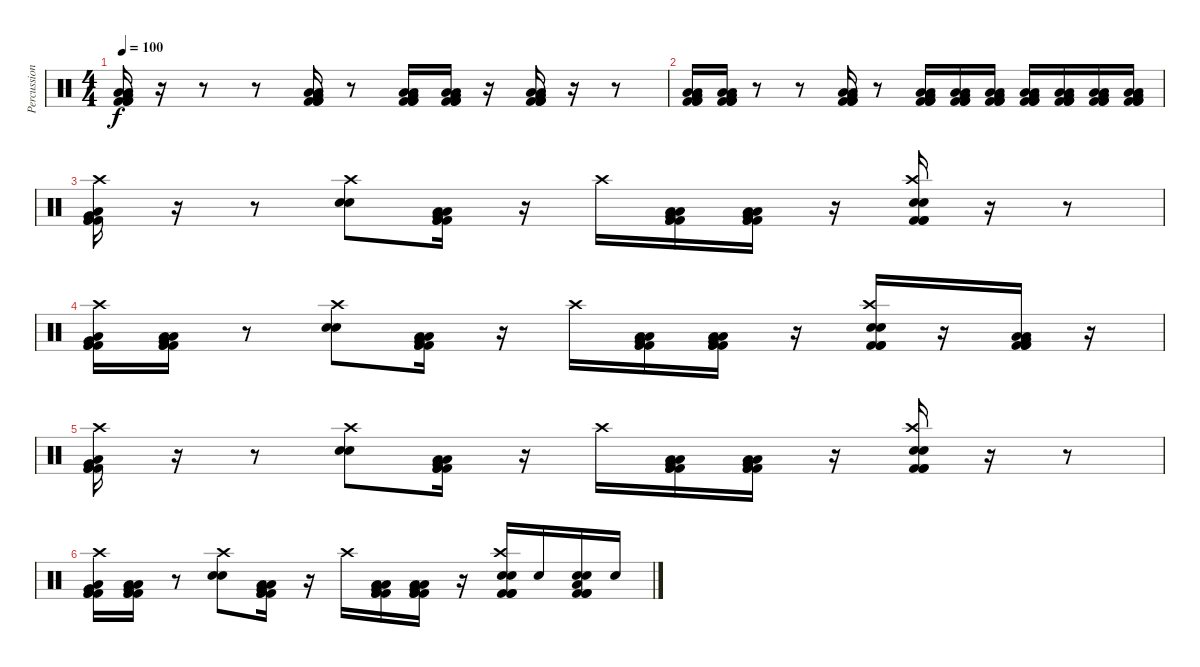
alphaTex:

\track ("Percussion" "Percussion") {instrument percussion}
\staff {score}
\articulation defaults
\ts (4 4)
\tempo 100
\clef neutral
\ks c
("Low Tom (hit)" "Very Low Tom (hit)" "Low Floor Tom (hit)" "Kick (hit) 2" "Kick (hit) 2" "Kick (hit) 2").16{dy f} r.16 r.8 r.8 ("Low Tom (hit)" "Very Low Tom (hit)" "Low Floor Tom (hit)" "Kick (hit) 2" "Kick (hit) 2" "Kick (hit) 2").16 r.8 ("Low Tom (hit)" "Very Low Tom (hit)" "Low Floor Tom (hit)" "Kick (hit) 2" "Kick (hit) 2" "Kick (hit) 2").16 ("Low Tom (hit)" "Very Low Tom (hit)" "Low Floor Tom (hit)" "Kick (hit) 2" "Kick (hit) 2" "Kick (hit) 2").16 r.16 ("Low Tom (hit)" "Very Low Tom (hit)" "Low Floor Tom (hit)" "Kick (hit) 2" "Kick (hit) 2" "Kick (hit) 2").16 r.16 r.8 |
("Low Tom (hit)" "Very Low Tom (hit)" "Low Floor Tom (hit)" "Kick (hit) 2" "Kick (hit) 2" "Kick (hit) 2").16 ("Low Tom (hit)" "Very Low Tom (hit)" "Low Floor Tom (hit)" "Kick (hit) 2" "Kick (hit) 2" "Kick (hit) 2").16 r.8 r.8 ("Low Tom (hit)" "Very Low Tom (hit)" "Low Floor Tom (hit)" "Kick (hit) 2" "Kick (hit) 2" "Kick (hit) 2").16 r.8 ("Low Tom (hit)" "Very Low Tom (hit)" "Low Floor Tom (hit)" "Kick (hit) 2" "Kick (hit) 2" "Kick (hit) 2").16 ("Low Tom (hit)" "Very Low Tom (hit)" "Low Floor Tom (hit)" "Kick (hit) 2" "Kick (hit) 2" "Kick (hit) 2").16 ("Low Tom (hit)" "Very Low Tom (hit)" "Low Floor Tom (hit)" "Kick (hit) 2" "Kick (hit) 2" "Kick (hit) 2").16 ("Low Tom (hit)" "Very Low Tom (hit)" "Low Floor Tom (hit)" "Kick (hit) 2" "Kick (hit) 2" "Kick (hit) 2").16 ("Low Tom (hit)" "Very Low Tom (hit)" "Low Floor Tom (hit)" "Kick (hit) 2" "Kick (hit) 2" "Kick (hit) 2").16 ("Low Tom (hit)" "Very Low Tom (hit)" "Low Floor Tom (hit)" "Kick (hit) 2" "Kick (hit) 2" "Kick (hit) 2").16 ("Low Tom (hit)" "Very Low Tom (hit)" "Low Floor Tom (hit)" "Kick (hit) 2" "Kick (hit) 2" "Kick (hit) 2").16 |
("Crash high (hit)" "Very Low Tom (hit)" "Low Floor Tom (hit)" "Kick (hit) 2" "Kick (hit) 2" "Kick (hit) 2").16 r.16 r.8 ("Crash high (hit)" "Electric Snare (hit)" "Electric Snare (hit)").8 ("Low Tom (hit)" "Very Low Tom (hit)" "Low Floor Tom (hit)" "Kick (hit) 2" "Kick (hit) 2" "Kick (hit) 2").16 r.16 "Crash high (hit)".16 ("Low Tom (hit)" "Very Low Tom (hit)" "Low Floor Tom (hit)" "Kick (hit) 2" "Kick (hit) 2" "Kick (hit) 2").16 ("Low Tom (hit)" "Very Low Tom (hit)" "Low Floor Tom (hit)" "Kick (hit) 2" "Kick (hit) 2" "Kick (hit) 2").16 r.16 ("Crash high (hit)" "Electric Snare (hit)" "Electric Snare (hit)" "Kick (hit) 2" "Kick (hit) 2" "Kick (hit) 2").16 r.16 r.8 |
("Crash high (hit)" "Very Low Tom (hit)" "Low Floor Tom (hit)" "Kick (hit) 2" "Kick (hit) 2" "Kick (hit) 2").16 ("Low Tom (hit)" "Very Low Tom (hit)" "Low Floor Tom (hit)" "Kick (hit) 2" "Kick (hit) 2" "Kick (hit) 2").16 r.8 ("Crash high (hit)" "Electric Snare (hit)" "Electric Snare (hit)").8 ("Low Tom (hit)" "Very Low Tom (hit)" "Low Floor Tom (hit)" "Kick (hit) 2" "Kick (hit) 2" "Kick (hit) 2").16 r.16 "Crash high (hit)".16 ("Low Tom (hit)" "Very Low Tom (hit)" "Low Floor Tom (hit)" "Kick (hit) 2" "Kick (hit) 2" "Kick (hit) 2").16 ("Low Tom (hit)" "Very Low Tom (hit)" "Low Floor Tom (hit)" "Kick (hit) 2" "Kick (hit) 2" "Kick (hit) 2").16 r.16 ("Crash high (hit)" "Electric Snare (hit)" "Electric Snare (hit)" "Kick (hit) 2" "Kick (hit) 2" "Kick (hit) 2").16 r.16 ("Low Tom (hit)" "Very Low Tom (hit)" "Low Floor Tom (hit)" "Kick (hit) 2" "Kick (hit) 2" "Kick (hit) 2").16 r.16 |
("Crash high (hit)" "Very Low Tom (hit)" "Low Floor Tom (hit)" "Kick (hit) 2" "Kick (hit) 2" "Kick (hit) 2").16 r.16 r.8 ("Crash high (hit)" "Electric Snare (hit)" "Electric Snare (hit)").8 ("Low Tom (hit)" "Very Low Tom (hit)" "Low Floor Tom (hit)" "Kick (hit) 2" "Kick (hit) 2" "Kick (hit) 2").16 r.16 "Crash high (hit)".16 ("Low Tom (hit)" "Very Low Tom (hit)" "Low Floor Tom (hit)" "Kick (hit) 2" "Kick (hit) 2" "Kick (hit) 2").16 ("Low Tom (hit)" "Very Low Tom (hit)" "Low Floor Tom (hit)" "Kick (hit) 2" "Kick (hit) 2" "Kick (hit) 2").16 r.16 ("Crash high (hit)" "Electric Snare (hit)" "Electric Snare (hit)" "Kick (hit) 2" "Kick (hit) 2" "Kick (hit) 2").16 r.16 r.8 |
("Crash high (hit)" "Very Low Tom (hit)" "Low Floor Tom (hit)" "Kick (hit) 2" "Kick (hit) 2" "Kick (hit) 2").16 ("Low Tom (hit)" "Very Low Tom (hit)" "Low Floor Tom (hit)" "Kick (hit) 2" "Kick (hit) 2" "Kick (hit) 2").16 r.8 ("Crash high (hit)" "Electric Snare (hit)" "Electric Snare (hit)").8 ("Low Tom (hit)" "Very Low Tom (hit)" "Low Floor Tom (hit)" "Kick (hit) 2" "Kick (hit) 2" "Kick (hit) 2").16 r.16 "Crash high (hit)".16 ("Low Tom (hit)" "Very Low Tom (hit)" "Low Floor Tom (hit)" "Kick (hit) 2" "Kick (hit) 2" "Kick (hit) 2").16 ("Low Tom (hit)" "Very Low Tom (hit)" "Low Floor Tom (hit)" "Kick (hit) 2" "Kick (hit) 2" "Kick (hit) 2").16 r.16 ("Crash high (hit)" "Electric Snare (hit)" "Electric Snare (hit)" "Kick (hit) 2" "Kick (hit) 2" "Kick (hit) 2").16 "Electric Snare (hit)".16 ("Low Tom (hit)" "Electric Snare (hit)" "Electric Snare (hit)" "Kick (hit) 2" "Kick (hit) 2" "Kick (hit) 2").16 "Electric Snare (hit)".16
